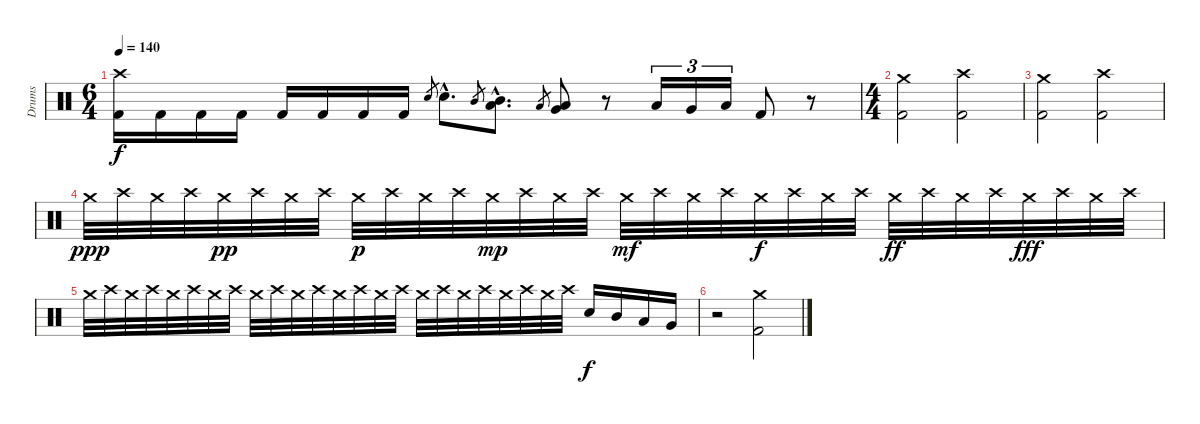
\track ("Drums" "Drums") {instrument percussion}
\staff {score}
\articulation defaults
\ts (6 4)
\tempo 140
\clef neutral
\ks c
("Crash high (hit)" "Kick (hit) 2").16{dy f} "Kick (hit) 2".16 "Kick (hit) 2".16 "Kick (hit) 2".16 "Kick (hit) 2".16 "Kick (hit) 2".16 "Kick (hit) 2".16 "Kick (hit) 2".16 "Snare (hit) 2".8{gr} "Snare (hit) 2"{hac}.8{d} "Mid Tom (hit)".8{gr} ("Mid Tom (hit)"{hac} "Low Tom (hit)"{hac}).8{d} "Low Tom (hit)".8{gr} ("Low Tom (hit)" "Very Low Tom (hit)").8 r.8 "Low Tom (hit)".16{tu (3 2)} "Very Low Tom (hit)".16{tu (3 2)} "Low Floor Tom (hit)".16{tu (3 2)} "Kick (hit) 2".8 r.8 |
\ts (4 4)
("Crash medium (hit)" "Kick (hit) 2").2 ("Crash high (hit)" "Kick (hit) 2").2 |
("Crash medium (hit)" "Kick (hit) 2").2 ("Crash high (hit)" "Kick (hit) 2").2 |
"Crash medium (hit)".32{dy ppp} "Crash high (hit)".32 "Crash medium (hit)".32 "Crash high (hit)".32 "Crash medium (hit)".32{dy pp} "Crash high (hit)".32 "Crash medium (hit)".32 "Crash high (hit)".32 "Crash medium (hit)".32{dy p} "Crash high (hit)".32 "Crash medium (hit)".32 "Crash high (hit)".32 "Crash medium (hit)".32{dy mp} "Crash high (hit)".32 "Crash medium (hit)".32 "Crash high (hit)".32 "Crash medium (hit)".32{dy mf} "Crash high (hit)".32 "Crash medium (hit)".32 "Crash high (hit)".32 "Crash medium (hit)".32{dy f} "Crash high (hit)".32 "Crash medium (hit)".32 "Crash high (hit)".32 "Crash medium (hit)".32{dy ff} "Crash high (hit)".32 "Crash medium (hit)".32 "Crash high (hit)".32 "Crash medium (hit)".32{dy fff} "Crash high (hit)".32 "Crash medium (hit)".32 "Crash high (hit)".32 |
"Crash medium (hit)".32 "Crash high (hit)".32 "Crash medium (hit)".32 "Crash high (hit)".32 "Crash medium (hit)".32 "Crash high (hit)".32 "Crash medium (hit)".32 "Crash high (hit)".32 "Crash medium (hit)".32 "Crash high (hit)".32 "Crash medium (hit)".32 "Crash high (hit)".32 "Crash medium (hit)".32 "Crash high (hit)".32 "Crash medium (hit)".32 "Crash high (hit)".32 "Crash medium (hit)".32 "Crash high (hit)".32 "Crash medium (hit)".32 "Crash high (hit)".32 "Crash medium (hit)".32 "Crash high (hit)".32 "Crash medium (hit)".32 "Crash high (hit)".32 "Snare (hit) 2".16{dy f} "Mid Tom (hit)".16 "Low Tom (hit)".16 "Very Low Tom (hit)".16 |
r.2 ("Crash medium (hit)" "Kick (hit) 2").2
